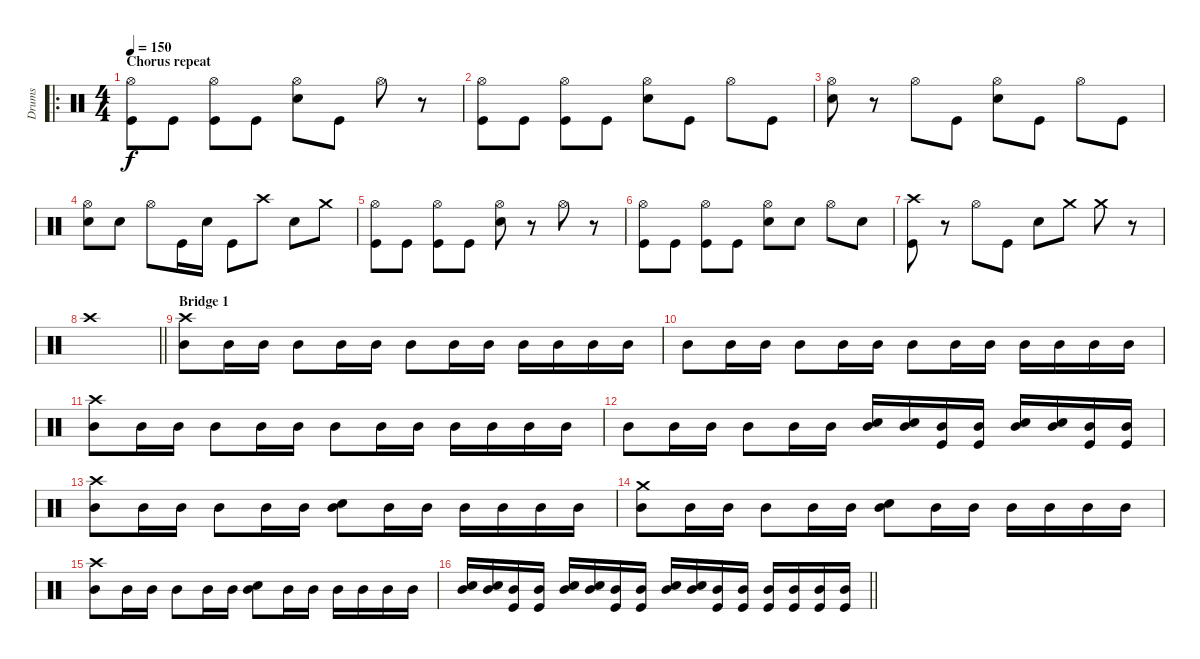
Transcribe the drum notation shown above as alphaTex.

\track ("Drums" "Drums") {instrument percussion}
\staff {score}
\articulation defaults
\ro
\ts (4 4)
\section ("" "Chorus repeat")
\tempo 150
\clef neutral
\ks c
("Hi-Hat (open)" "Kick (hit)").8{dy f} "Kick (hit)".8 ("Hi-Hat (open)" "Kick (hit)").8 "Kick (hit)".8 ("Hi-Hat (open)" "Snare (hit) 2").8 "Kick (hit)".8 "Hi-Hat (open)".8 r.8 |
("Hi-Hat (open)" "Kick (hit)").8 "Kick (hit)".8 ("Hi-Hat (open)" "Kick (hit)").8 "Kick (hit)".8 ("Hi-Hat (open)" "Snare (hit) 2").8 "Kick (hit)".8 "Hi-Hat (open)".8 "Kick (hit)".8 |
("Hi-Hat (open)" "Snare (hit) 2").8 r.8 "Hi-Hat (open)".8 "Kick (hit)".8 ("Hi-Hat (open)" "Snare (hit) 2").8 "Kick (hit)".8 "Hi-Hat (open)".8 "Kick (hit)".8 |
("Hi-Hat (open)" "Snare (hit) 2").8 "Snare (hit) 2".8 "Hi-Hat (open)".8 "Kick (hit)".16 "Snare (hit) 2".16 "Kick (hit)".8 "Crash high (hit)".8 "Snare (hit) 2".8 "Crash medium (hit)".8 |
("Hi-Hat (open)" "Kick (hit)").8 "Kick (hit)".8 ("Hi-Hat (open)" "Kick (hit)").8 "Kick (hit)".8 ("Hi-Hat (open)" "Snare (hit) 2").8 r.8 "Hi-Hat (open)".8 r.8 |
("Hi-Hat (open)" "Kick (hit)").8 "Kick (hit)".8 ("Hi-Hat (open)" "Kick (hit)").8 "Kick (hit)".8 ("Hi-Hat (open)" "Snare (hit) 2").8 "Snare (hit) 2".8 "Hi-Hat (open)".8 "Snare (hit) 2".8 |
("Crash high (hit)" "Kick (hit)").8 r.8 "Hi-Hat (open)".8 "Kick (hit)".8 "Snare (hit) 2".8 "Crash medium (hit)".8 "Crash medium (hit)".8 r.8 |
\barLineRight lightlight "Crash high (hit)".1
|
\section ("" "Bridge 1")
("Mid Tom (hit)" "Crash high (hit)").8 "Mid Tom (hit)".16 "Mid Tom (hit)".16 "Mid Tom (hit)".8 "Mid Tom (hit)".16 "Mid Tom (hit)".16 "Mid Tom (hit)".8 "Mid Tom (hit)".16 "Mid Tom (hit)".16 "Mid Tom (hit)".16 "Mid Tom (hit)".16 "Mid Tom (hit)".16 "Mid Tom (hit)".16 |
"Mid Tom (hit)".8 "Mid Tom (hit)".16 "Mid Tom (hit)".16 "Mid Tom (hit)".8 "Mid Tom (hit)".16 "Mid Tom (hit)".16 "Mid Tom (hit)".8 "Mid Tom (hit)".16 "Mid Tom (hit)".16 "Mid Tom (hit)".16 "Mid Tom (hit)".16 "Mid Tom (hit)".16 "Mid Tom (hit)".16 |
("Mid Tom (hit)" "Crash high (hit)").8 "Mid Tom (hit)".16 "Mid Tom (hit)".16 "Mid Tom (hit)".8 "Mid Tom (hit)".16 "Mid Tom (hit)".16 "Mid Tom (hit)".8 "Mid Tom (hit)".16 "Mid Tom (hit)".16 "Mid Tom (hit)".16 "Mid Tom (hit)".16 "Mid Tom (hit)".16 "Mid Tom (hit)".16 |
"Mid Tom (hit)".8 "Mid Tom (hit)".16 "Mid Tom (hit)".16 "Mid Tom (hit)".8 "Mid Tom (hit)".16 "Mid Tom (hit)".16 ("Mid Tom (hit)" "Snare (hit) 2").16 ("Mid Tom (hit)" "Snare (hit) 2").16 ("Mid Tom (hit)" "Kick (hit)").16 ("Mid Tom (hit)" "Kick (hit)").16 ("Mid Tom (hit)" "Snare (hit) 2").16 ("Mid Tom (hit)" "Snare (hit) 2").16 ("Mid Tom (hit)" "Kick (hit)").16 ("Mid Tom (hit)" "Kick (hit)").16 |
("Mid Tom (hit)" "Crash high (hit)").8 "Mid Tom (hit)".16 "Mid Tom (hit)".16 "Mid Tom (hit)".8 "Mid Tom (hit)".16 "Mid Tom (hit)".16 ("Mid Tom (hit)" "Snare (hit) 2").8 "Mid Tom (hit)".16 "Mid Tom (hit)".16 "Mid Tom (hit)".16 "Mid Tom (hit)".16 "Mid Tom (hit)".16 "Mid Tom (hit)".16 |
("Mid Tom (hit)" "Crash medium (hit)").8 "Mid Tom (hit)".16 "Mid Tom (hit)".16 "Mid Tom (hit)".8 "Mid Tom (hit)".16 "Mid Tom (hit)".16 ("Mid Tom (hit)" "Snare (hit) 2").8 "Mid Tom (hit)".16 "Mid Tom (hit)".16 "Mid Tom (hit)".16 "Mid Tom (hit)".16 "Mid Tom (hit)".16 "Mid Tom (hit)".16 |
("Mid Tom (hit)" "Crash high (hit)").8 "Mid Tom (hit)".16 "Mid Tom (hit)".16 "Mid Tom (hit)".8 "Mid Tom (hit)".16 "Mid Tom (hit)".16 ("Mid Tom (hit)" "Snare (hit) 2").8 "Mid Tom (hit)".16 "Mid Tom (hit)".16 "Mid Tom (hit)".16 "Mid Tom (hit)".16 "Mid Tom (hit)".16 "Mid Tom (hit)".16 |
\barLineRight lightlight
("Mid Tom (hit)" "Snare (hit) 2").16 ("Mid Tom (hit)" "Snare (hit) 2").16 ("Mid Tom (hit)" "Kick (hit)").16 ("Mid Tom (hit)" "Kick (hit)").16 ("Mid Tom (hit)" "Snare (hit) 2").16 ("Mid Tom (hit)" "Snare (hit) 2").16 ("Mid Tom (hit)" "Kick (hit)").16 ("Mid Tom (hit)" "Kick (hit)").16 ("Mid Tom (hit)" "Snare (hit) 2").16 ("Mid Tom (hit)" "Snare (hit) 2").16 ("Mid Tom (hit)" "Kick (hit)").16 ("Mid Tom (hit)" "Kick (hit)").16 ("Mid Tom (hit)" "Kick (hit)").16 ("Mid Tom (hit)" "Kick (hit)").16 ("Mid Tom (hit)" "Kick (hit)").16 ("Mid Tom (hit)" "Kick (hit)").16
